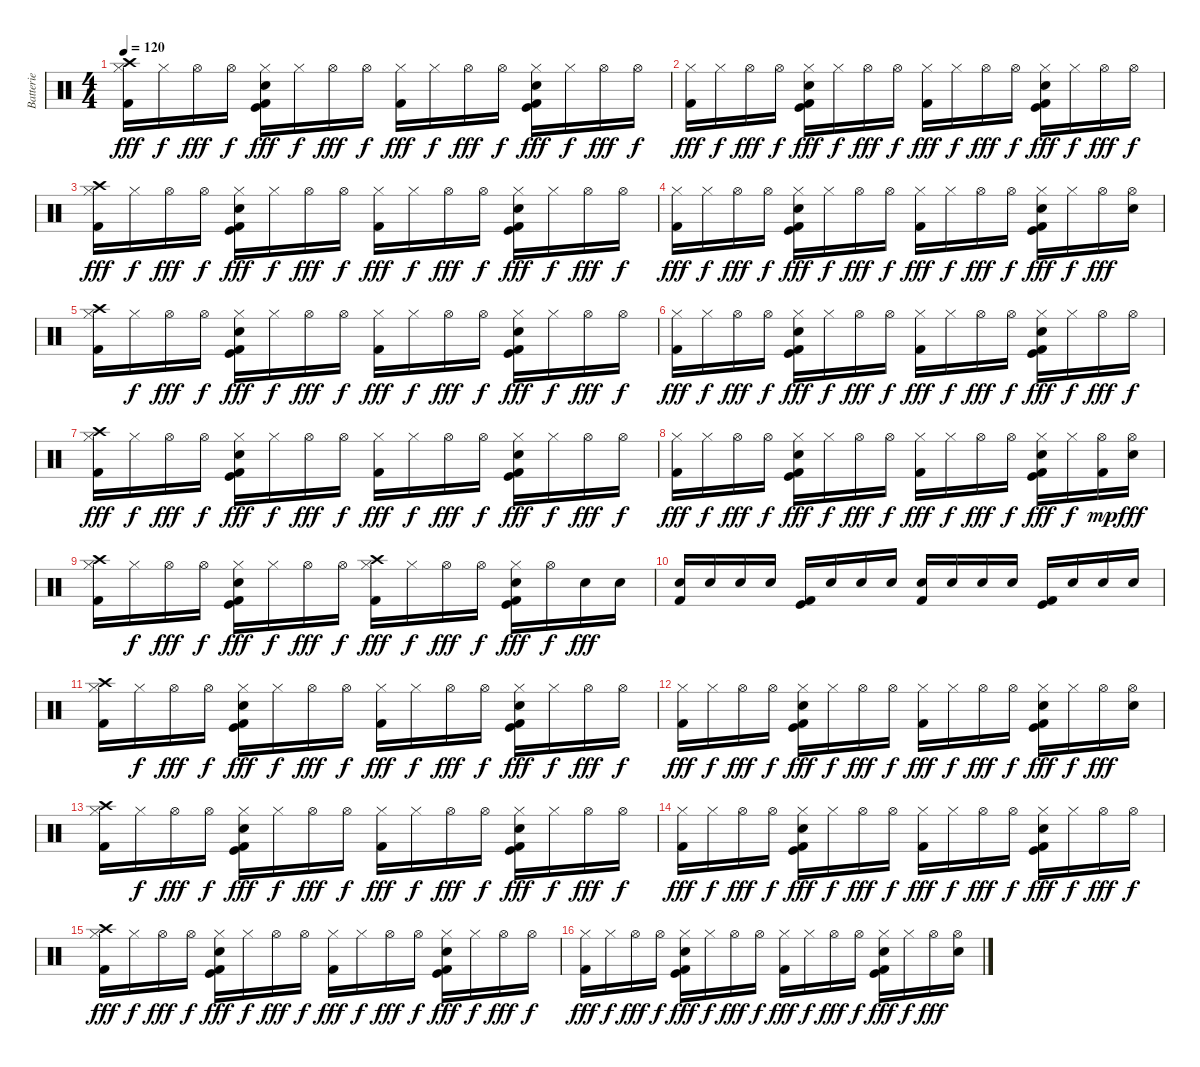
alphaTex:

\track ("Batterie" "Batterie") {instrument percussion}
\staff {score}
\articulation defaults
\ts (4 4)
\tempo 120
\clef neutral
\ks c
("Hi-Hat (closed)" "Crash high (hit)" "Kick (hit) 2").16{dy fff} "Hi-Hat (closed)".16{dy f} "Hi-Hat (open)".16{dy fff} "Hi-Hat (open)".16{dy f} ("Hi-Hat (closed)" "Electric Snare (hit)" "Kick (hit) 2" "Kick (hit)").16{dy fff} "Hi-Hat (closed)".16{dy f} "Hi-Hat (open)".16{dy fff} "Hi-Hat (open)".16{dy f} ("Hi-Hat (closed)" "Kick (hit) 2").16{dy fff} "Hi-Hat (closed)".16{dy f} "Hi-Hat (open)".16{dy fff} "Hi-Hat (open)".16{dy f} ("Hi-Hat (closed)" "Electric Snare (hit)" "Kick (hit)" "Kick (hit) 2").16{dy fff} "Hi-Hat (closed)".16{dy f} "Hi-Hat (open)".16{dy fff} "Hi-Hat (open)".16{dy f} |
("Hi-Hat (closed)" "Kick (hit) 2").16{dy fff} "Hi-Hat (closed)".16{dy f} "Hi-Hat (open)".16{dy fff} "Hi-Hat (open)".16{dy f} ("Hi-Hat (closed)" "Electric Snare (hit)" "Kick (hit) 2" "Kick (hit)").16{dy fff} "Hi-Hat (closed)".16{dy f} "Hi-Hat (open)".16{dy fff} "Hi-Hat (open)".16{dy f} ("Hi-Hat (closed)" "Kick (hit) 2").16{dy fff} "Hi-Hat (closed)".16{dy f} "Hi-Hat (open)".16{dy fff} "Hi-Hat (open)".16{dy f} ("Hi-Hat (closed)" "Electric Snare (hit)" "Kick (hit)" "Kick (hit) 2").16{dy fff} "Hi-Hat (closed)".16{dy f} "Hi-Hat (open)".16{dy fff} "Hi-Hat (open)".16{dy f} |
("Hi-Hat (closed)" "Crash high (hit)" "Kick (hit) 2").16{dy fff} "Hi-Hat (closed)".16{dy f} "Hi-Hat (open)".16{dy fff} "Hi-Hat (open)".16{dy f} ("Hi-Hat (closed)" "Electric Snare (hit)" "Kick (hit) 2" "Kick (hit)").16{dy fff} "Hi-Hat (closed)".16{dy f} "Hi-Hat (open)".16{dy fff} "Hi-Hat (open)".16{dy f} ("Hi-Hat (closed)" "Kick (hit) 2").16{dy fff} "Hi-Hat (closed)".16{dy f} "Hi-Hat (open)".16{dy fff} "Hi-Hat (open)".16{dy f} ("Hi-Hat (closed)" "Electric Snare (hit)" "Kick (hit)" "Kick (hit) 2").16{dy fff} "Hi-Hat (closed)".16{dy f} "Hi-Hat (open)".16{dy fff} "Hi-Hat (open)".16{dy f} |
("Hi-Hat (closed)" "Kick (hit) 2").16{dy fff} "Hi-Hat (closed)".16{dy f} "Hi-Hat (open)".16{dy fff} "Hi-Hat (open)".16{dy f} ("Hi-Hat (closed)" "Electric Snare (hit)" "Kick (hit) 2" "Kick (hit)").16{dy fff} "Hi-Hat (closed)".16{dy f} "Hi-Hat (open)".16{dy fff} "Hi-Hat (open)".16{dy f} ("Hi-Hat (closed)" "Kick (hit) 2").16{dy fff} "Hi-Hat (closed)".16{dy f} "Hi-Hat (open)".16{dy fff} "Hi-Hat (open)".16{dy f} ("Hi-Hat (closed)" "Electric Snare (hit)" "Kick (hit)" "Kick (hit) 2").16{dy fff} "Hi-Hat (closed)".16{dy f} "Hi-Hat (open)".16{dy fff} ("Hi-Hat (open)" "Electric Snare (hit)").16 |
("Hi-Hat (closed)" "Crash high (hit)" "Kick (hit) 2").16 "Hi-Hat (closed)".16{dy f} "Hi-Hat (open)".16{dy fff} "Hi-Hat (open)".16{dy f} ("Hi-Hat (closed)" "Electric Snare (hit)" "Kick (hit) 2" "Kick (hit)").16{dy fff} "Hi-Hat (closed)".16{dy f} "Hi-Hat (open)".16{dy fff} "Hi-Hat (open)".16{dy f} ("Hi-Hat (closed)" "Kick (hit) 2").16{dy fff} "Hi-Hat (closed)".16{dy f} "Hi-Hat (open)".16{dy fff} "Hi-Hat (open)".16{dy f} ("Hi-Hat (closed)" "Electric Snare (hit)" "Kick (hit)" "Kick (hit) 2").16{dy fff} "Hi-Hat (closed)".16{dy f} "Hi-Hat (open)".16{dy fff} "Hi-Hat (open)".16{dy f} |
("Hi-Hat (closed)" "Kick (hit) 2").16{dy fff} "Hi-Hat (closed)".16{dy f} "Hi-Hat (open)".16{dy fff} "Hi-Hat (open)".16{dy f} ("Hi-Hat (closed)" "Electric Snare (hit)" "Kick (hit) 2" "Kick (hit)").16{dy fff} "Hi-Hat (closed)".16{dy f} "Hi-Hat (open)".16{dy fff} "Hi-Hat (open)".16{dy f} ("Hi-Hat (closed)" "Kick (hit) 2").16{dy fff} "Hi-Hat (closed)".16{dy f} "Hi-Hat (open)".16{dy fff} "Hi-Hat (open)".16{dy f} ("Hi-Hat (closed)" "Electric Snare (hit)" "Kick (hit)" "Kick (hit) 2").16{dy fff} "Hi-Hat (closed)".16{dy f} "Hi-Hat (open)".16{dy fff} "Hi-Hat (open)".16{dy f} |
("Hi-Hat (closed)" "Crash high (hit)" "Kick (hit) 2").16{dy fff} "Hi-Hat (closed)".16{dy f} "Hi-Hat (open)".16{dy fff} "Hi-Hat (open)".16{dy f} ("Hi-Hat (closed)" "Electric Snare (hit)" "Kick (hit) 2" "Kick (hit)").16{dy fff} "Hi-Hat (closed)".16{dy f} "Hi-Hat (open)".16{dy fff} "Hi-Hat (open)".16{dy f} ("Hi-Hat (closed)" "Kick (hit) 2").16{dy fff} "Hi-Hat (closed)".16{dy f} "Hi-Hat (open)".16{dy fff} "Hi-Hat (open)".16{dy f} ("Hi-Hat (closed)" "Electric Snare (hit)" "Kick (hit)" "Kick (hit) 2").16{dy fff} "Hi-Hat (closed)".16{dy f} "Hi-Hat (open)".16{dy fff} "Hi-Hat (open)".16{dy f} |
("Hi-Hat (closed)" "Kick (hit) 2").16{dy fff} "Hi-Hat (closed)".16{dy f} "Hi-Hat (open)".16{dy fff} "Hi-Hat (open)".16{dy f} ("Hi-Hat (closed)" "Electric Snare (hit)" "Kick (hit) 2" "Kick (hit)").16{dy fff} "Hi-Hat (closed)".16{dy f} "Hi-Hat (open)".16{dy fff} "Hi-Hat (open)".16{dy f} ("Hi-Hat (closed)" "Kick (hit) 2").16{dy fff} "Hi-Hat (closed)".16{dy f} "Hi-Hat (open)".16{dy fff} "Hi-Hat (open)".16{dy f} ("Hi-Hat (closed)" "Electric Snare (hit)" "Kick (hit)" "Kick (hit) 2").16{dy fff} "Hi-Hat (closed)".16{dy f} ("Hi-Hat (open)" "Kick (hit) 2").16{dy mp} ("Hi-Hat (open)" "Electric Snare (hit)").16{dy fff} |
("Hi-Hat (closed)" "Crash high (hit)" "Kick (hit) 2").16 "Hi-Hat (closed)".16{dy f} "Hi-Hat (open)".16{dy fff} "Hi-Hat (open)".16{dy f} ("Hi-Hat (closed)" "Electric Snare (hit)" "Kick (hit) 2" "Kick (hit)").16{dy fff} "Hi-Hat (closed)".16{dy f} "Hi-Hat (open)".16{dy fff} "Hi-Hat (open)".16{dy f} ("Hi-Hat (closed)" "Crash high (hit)" "Kick (hit) 2").16{dy fff} "Hi-Hat (closed)".16{dy f} "Hi-Hat (open)".16{dy fff} "Hi-Hat (open)".16{dy f} ("Hi-Hat (closed)" "Electric Snare (hit)" "Kick (hit) 2" "Kick (hit)").16{dy fff} "Hi-Hat (open)".16{dy f} "Electric Snare (hit)".16{dy fff} "Electric Snare (hit)".16 |
("Electric Snare (hit)" "Kick (hit) 2").16 "Electric Snare (hit)".16 "Electric Snare (hit)".16 "Electric Snare (hit)".16 ("Kick (hit) 2" "Kick (hit)").16 "Electric Snare (hit)".16 "Electric Snare (hit)".16 "Electric Snare (hit)".16 ("Electric Snare (hit)" "Kick (hit) 2").16 "Electric Snare (hit)".16 "Electric Snare (hit)".16 "Electric Snare (hit)".16 ("Kick (hit) 2" "Kick (hit)").16 "Electric Snare (hit)".16 "Electric Snare (hit)".16 "Electric Snare (hit)".16 |
("Hi-Hat (closed)" "Crash high (hit)" "Kick (hit) 2").16 "Hi-Hat (closed)".16{dy f} "Hi-Hat (open)".16{dy fff} "Hi-Hat (open)".16{dy f} ("Hi-Hat (closed)" "Electric Snare (hit)" "Kick (hit)" "Kick (hit) 2").16{dy fff} "Hi-Hat (closed)".16{dy f} "Hi-Hat (open)".16{dy fff} "Hi-Hat (open)".16{dy f} ("Hi-Hat (closed)" "Kick (hit) 2").16{dy fff} "Hi-Hat (closed)".16{dy f} "Hi-Hat (open)".16{dy fff} "Hi-Hat (open)".16{dy f} ("Hi-Hat (closed)" "Electric Snare (hit)" "Kick (hit)" "Kick (hit) 2").16{dy fff} "Hi-Hat (closed)".16{dy f} "Hi-Hat (open)".16{dy fff} "Hi-Hat (open)".16{dy f} |
("Hi-Hat (closed)" "Kick (hit) 2").16{dy fff} "Hi-Hat (closed)".16{dy f} "Hi-Hat (open)".16{dy fff} "Hi-Hat (open)".16{dy f} ("Hi-Hat (closed)" "Electric Snare (hit)" "Kick (hit) 2" "Kick (hit)").16{dy fff} "Hi-Hat (closed)".16{dy f} "Hi-Hat (open)".16{dy fff} "Hi-Hat (open)".16{dy f} ("Hi-Hat (closed)" "Kick (hit) 2").16{dy fff} "Hi-Hat (closed)".16{dy f} "Hi-Hat (open)".16{dy fff} "Hi-Hat (open)".16{dy f} ("Hi-Hat (closed)" "Electric Snare (hit)" "Kick (hit)" "Kick (hit) 2").16{dy fff} "Hi-Hat (closed)".16{dy f} "Hi-Hat (open)".16{dy fff} ("Hi-Hat (open)" "Electric Snare (hit)").16 |
("Hi-Hat (closed)" "Crash high (hit)" "Kick (hit) 2").16 "Hi-Hat (closed)".16{dy f} "Hi-Hat (open)".16{dy fff} "Hi-Hat (open)".16{dy f} ("Hi-Hat (closed)" "Electric Snare (hit)" "Kick (hit)" "Kick (hit) 2").16{dy fff} "Hi-Hat (closed)".16{dy f} "Hi-Hat (open)".16{dy fff} "Hi-Hat (open)".16{dy f} ("Hi-Hat (closed)" "Kick (hit) 2").16{dy fff} "Hi-Hat (closed)".16{dy f} "Hi-Hat (open)".16{dy fff} "Hi-Hat (open)".16{dy f} ("Hi-Hat (closed)" "Electric Snare (hit)" "Kick (hit)" "Kick (hit) 2").16{dy fff} "Hi-Hat (closed)".16{dy f} "Hi-Hat (open)".16{dy fff} "Hi-Hat (open)".16{dy f} |
("Hi-Hat (closed)" "Kick (hit) 2").16{dy fff} "Hi-Hat (closed)".16{dy f} "Hi-Hat (open)".16{dy fff} "Hi-Hat (open)".16{dy f} ("Hi-Hat (closed)" "Electric Snare (hit)" "Kick (hit) 2" "Kick (hit)").16{dy fff} "Hi-Hat (closed)".16{dy f} "Hi-Hat (open)".16{dy fff} "Hi-Hat (open)".16{dy f} ("Hi-Hat (closed)" "Kick (hit) 2").16{dy fff} "Hi-Hat (closed)".16{dy f} "Hi-Hat (open)".16{dy fff} "Hi-Hat (open)".16{dy f} ("Hi-Hat (closed)" "Electric Snare (hit)" "Kick (hit)" "Kick (hit) 2").16{dy fff} "Hi-Hat (closed)".16{dy f} "Hi-Hat (open)".16{dy fff} "Hi-Hat (open)".16{dy f} |
("Hi-Hat (closed)" "Crash high (hit)" "Kick (hit) 2").16{dy fff} "Hi-Hat (closed)".16{dy f} "Hi-Hat (open)".16{dy fff} "Hi-Hat (open)".16{dy f} ("Hi-Hat (closed)" "Electric Snare (hit)" "Kick (hit)" "Kick (hit) 2").16{dy fff} "Hi-Hat (closed)".16{dy f} "Hi-Hat (open)".16{dy fff} "Hi-Hat (open)".16{dy f} ("Hi-Hat (closed)" "Kick (hit) 2").16{dy fff} "Hi-Hat (closed)".16{dy f} "Hi-Hat (open)".16{dy fff} "Hi-Hat (open)".16{dy f} ("Hi-Hat (closed)" "Electric Snare (hit)" "Kick (hit)" "Kick (hit) 2").16{dy fff} "Hi-Hat (closed)".16{dy f} "Hi-Hat (open)".16{dy fff} "Hi-Hat (open)".16{dy f} |
("Hi-Hat (closed)" "Kick (hit) 2").16{dy fff} "Hi-Hat (closed)".16{dy f} "Hi-Hat (open)".16{dy fff} "Hi-Hat (open)".16{dy f} ("Hi-Hat (closed)" "Electric Snare (hit)" "Kick (hit) 2" "Kick (hit)").16{dy fff} "Hi-Hat (closed)".16{dy f} "Hi-Hat (open)".16{dy fff} "Hi-Hat (open)".16{dy f} ("Hi-Hat (closed)" "Kick (hit) 2").16{dy fff} "Hi-Hat (closed)".16{dy f} "Hi-Hat (open)".16{dy fff} "Hi-Hat (open)".16{dy f} ("Hi-Hat (closed)" "Electric Snare (hit)" "Kick (hit)" "Kick (hit) 2").16{dy fff} "Hi-Hat (closed)".16{dy f} "Hi-Hat (open)".16{dy fff} ("Hi-Hat (open)" "Electric Snare (hit)").16
